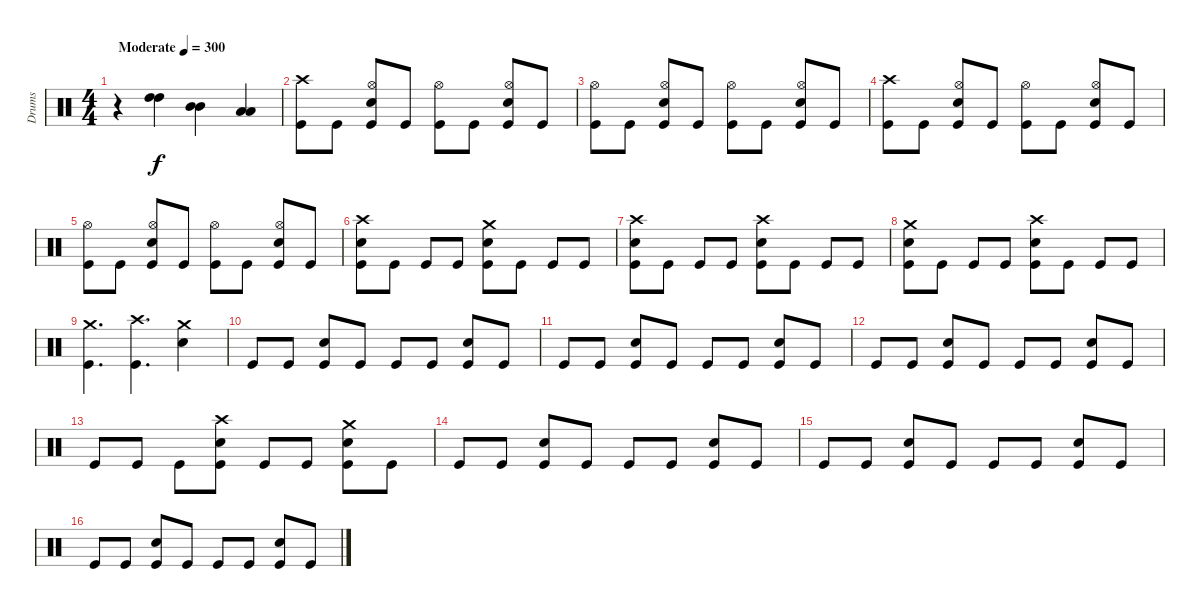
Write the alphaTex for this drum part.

\track ("Drums" "Drums") {instrument percussion}
\staff {score}
\articulation defaults
\ts (4 4)
\tempo (300 "Moderate")
\clef neutral
\ks c
r.4{dy f} ("High Tom (hit)" "High Tom (hit)").4 ("Mid Tom (hit)" "Mid Tom (hit)").4 ("Low Tom (hit)" "Low Tom (hit)").4 |
("Crash high (hit)" "Kick (hit)").8 "Kick (hit)".8 ("Hi-Hat (open)" "Electric Snare (hit)" "Kick (hit)").8 "Kick (hit)".8 ("Hi-Hat (open)" "Kick (hit)").8 "Kick (hit)".8 ("Hi-Hat (open)" "Electric Snare (hit)" "Kick (hit)").8 "Kick (hit)".8 |
("Hi-Hat (open)" "Kick (hit)").8 "Kick (hit)".8 ("Hi-Hat (open)" "Electric Snare (hit)" "Kick (hit)").8 "Kick (hit)".8 ("Hi-Hat (open)" "Kick (hit)").8 "Kick (hit)".8 ("Hi-Hat (open)" "Electric Snare (hit)" "Kick (hit)").8 "Kick (hit)".8 |
("Crash high (hit)" "Kick (hit)").8 "Kick (hit)".8 ("Hi-Hat (open)" "Electric Snare (hit)" "Kick (hit)").8 "Kick (hit)".8 ("Hi-Hat (open)" "Kick (hit)").8 "Kick (hit)".8 ("Hi-Hat (open)" "Electric Snare (hit)" "Kick (hit)").8 "Kick (hit)".8 |
("Hi-Hat (open)" "Kick (hit)").8 "Kick (hit)".8 ("Hi-Hat (open)" "Electric Snare (hit)" "Kick (hit)").8 "Kick (hit)".8 ("Hi-Hat (open)" "Kick (hit)").8 "Kick (hit)".8 ("Hi-Hat (open)" "Electric Snare (hit)" "Kick (hit)").8 "Kick (hit)".8 |
("Crash high (hit)" "Electric Snare (hit)" "Kick (hit)").8 "Kick (hit)".8 "Kick (hit)".8 "Kick (hit)".8 ("Crash medium (hit)" "Electric Snare (hit)" "Kick (hit)").8 "Kick (hit)".8 "Kick (hit)".8 "Kick (hit)".8 |
("Crash high (hit)" "Electric Snare (hit)" "Kick (hit)").8 "Kick (hit)".8 "Kick (hit)".8 "Kick (hit)".8 ("Crash high (hit)" "Electric Snare (hit)" "Kick (hit)").8 "Kick (hit)".8 "Kick (hit)".8 "Kick (hit)".8 |
("Crash medium (hit)" "Electric Snare (hit)" "Kick (hit)").8 "Kick (hit)".8 "Kick (hit)".8 "Kick (hit)".8 ("Crash high (hit)" "Electric Snare (hit)" "Kick (hit)").8 "Kick (hit)".8 "Kick (hit)".8 "Kick (hit)".8 |
("Crash medium (hit)" "Kick (hit)").4{d} ("Crash high (hit)" "Kick (hit)").4{d} ("Crash medium (hit)" "Electric Snare (hit)").4 |
"Kick (hit)".8 "Kick (hit)".8 ("Electric Snare (hit)" "Kick (hit)").8 "Kick (hit)".8 "Kick (hit)".8 "Kick (hit)".8 ("Electric Snare (hit)" "Kick (hit)").8 "Kick (hit)".8 |
"Kick (hit)".8 "Kick (hit)".8 ("Electric Snare (hit)" "Kick (hit)").8 "Kick (hit)".8 "Kick (hit)".8 "Kick (hit)".8 ("Electric Snare (hit)" "Kick (hit)").8 "Kick (hit)".8 |
"Kick (hit)".8 "Kick (hit)".8 ("Electric Snare (hit)" "Kick (hit)").8 "Kick (hit)".8 "Kick (hit)".8 "Kick (hit)".8 ("Electric Snare (hit)" "Kick (hit)").8 "Kick (hit)".8 |
"Kick (hit)".8 "Kick (hit)".8 "Kick (hit)".8 ("Crash high (hit)" "Electric Snare (hit)" "Kick (hit)").8 "Kick (hit)".8 "Kick (hit)".8 ("Crash medium (hit)" "Electric Snare (hit)" "Kick (hit)").8 "Kick (hit)".8 |
"Kick (hit)".8 "Kick (hit)".8 ("Electric Snare (hit)" "Kick (hit)").8 "Kick (hit)".8 "Kick (hit)".8 "Kick (hit)".8 ("Electric Snare (hit)" "Kick (hit)").8 "Kick (hit)".8 |
"Kick (hit)".8 "Kick (hit)".8 ("Electric Snare (hit)" "Kick (hit)").8 "Kick (hit)".8 "Kick (hit)".8 "Kick (hit)".8 ("Electric Snare (hit)" "Kick (hit)").8 "Kick (hit)".8 |
"Kick (hit)".8 "Kick (hit)".8 ("Electric Snare (hit)" "Kick (hit)").8 "Kick (hit)".8 "Kick (hit)".8 "Kick (hit)".8 ("Electric Snare (hit)" "Kick (hit)").8 "Kick (hit)".8
